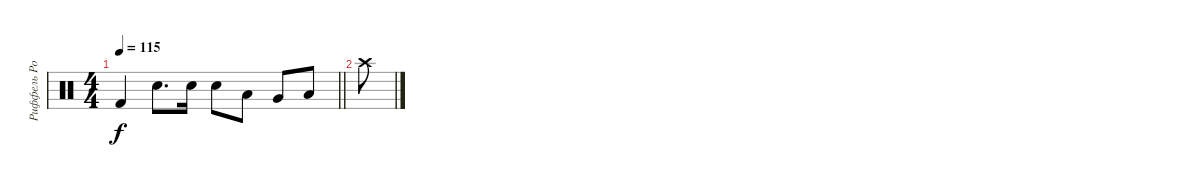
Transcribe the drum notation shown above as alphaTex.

\track ("Риффель Роман(Главные)" "Риффель Ро") {instrument percussion}
\staff {score}
\articulation defaults
\ts (4 4)
\tempo 115
\clef neutral
\barLineRight lightlight
\ks c "Kick (hit) 2".4{dy f} "Electric Snare (hit)".8{d} "Electric Snare (hit)".16 "Electric Snare (hit)".8 "Low Tom (hit)".8 "Very Low Tom (hit)".8 "Low Floor Tom (hit)".8
|
"Crash high (hit)".8
